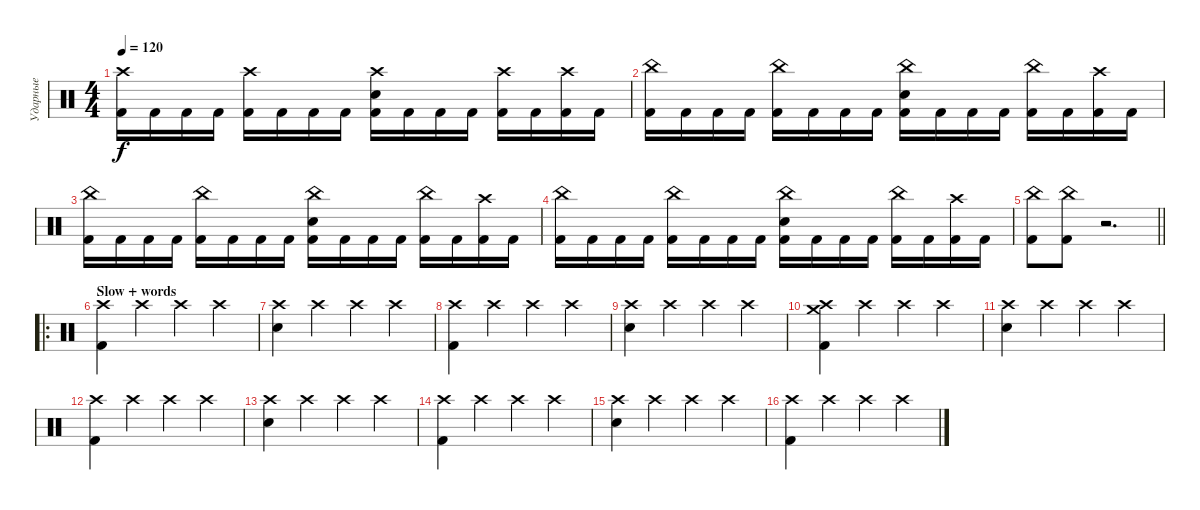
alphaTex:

\track ("Ударные" "Ударные") {instrument percussion}
\staff {score}
\articulation defaults
\ts (4 4)
\tempo 120
\clef neutral
\ks c
("Crash high (hit)" "Kick (hit) 2").16{dy f} "Kick (hit) 2".16 "Kick (hit) 2".16 "Kick (hit) 2".16 ("Crash high (hit)" "Kick (hit) 2").16 "Kick (hit) 2".16 "Kick (hit) 2".16 "Kick (hit) 2".16 ("Crash high (hit)" "Snare (hit) 2" "Kick (hit) 2").16 "Kick (hit) 2".16 "Kick (hit) 2".16 "Kick (hit) 2".16 ("Crash high (hit)" "Kick (hit) 2").16 "Kick (hit) 2".16 ("Crash high (hit)" "Kick (hit) 2").16 "Kick (hit) 2".16 |
("China (hit)" "Kick (hit) 2").16 "Kick (hit) 2".16 "Kick (hit) 2".16 "Kick (hit) 2".16 ("China (hit)" "Kick (hit) 2").16 "Kick (hit) 2".16 "Kick (hit) 2".16 "Kick (hit) 2".16 ("China (hit)" "Snare (hit) 2" "Kick (hit) 2").16 "Kick (hit) 2".16 "Kick (hit) 2".16 "Kick (hit) 2".16 ("China (hit)" "Kick (hit) 2").16 "Kick (hit) 2".16 ("Crash high (hit)" "Kick (hit) 2").16 "Kick (hit) 2".16 |
("China (hit)" "Kick (hit) 2").16 "Kick (hit) 2".16 "Kick (hit) 2".16 "Kick (hit) 2".16 ("China (hit)" "Kick (hit) 2").16 "Kick (hit) 2".16 "Kick (hit) 2".16 "Kick (hit) 2".16 ("China (hit)" "Snare (hit) 2" "Kick (hit) 2").16 "Kick (hit) 2".16 "Kick (hit) 2".16 "Kick (hit) 2".16 ("China (hit)" "Kick (hit) 2").16 "Kick (hit) 2".16 ("Crash high (hit)" "Kick (hit) 2").16 "Kick (hit) 2".16 |
("China (hit)" "Kick (hit) 2").16 "Kick (hit) 2".16 "Kick (hit) 2".16 "Kick (hit) 2".16 ("China (hit)" "Kick (hit) 2").16 "Kick (hit) 2".16 "Kick (hit) 2".16 "Kick (hit) 2".16 ("China (hit)" "Snare (hit) 2" "Kick (hit) 2").16 "Kick (hit) 2".16 "Kick (hit) 2".16 "Kick (hit) 2".16 ("China (hit)" "Kick (hit) 2").16 "Kick (hit) 2".16 ("Crash high (hit)" "Kick (hit) 2").16 "Kick (hit) 2".16 |
\barLineRight lightlight
("China (hit)" "Kick (hit) 2").8 ("China (hit)" "Kick (hit) 2").8 r.2{d} |
\ro
\section ("" "Slow + words")
("Crash high (hit)" "Kick (hit) 2").4 "Crash high (hit)".4 "Crash high (hit)".4 "Crash high (hit)".4 |
("Crash high (hit)" "Snare (hit) 2").4 "Crash high (hit)".4 "Crash high (hit)".4 "Crash high (hit)".4 |
("Crash high (hit)" "Kick (hit) 2").4 "Crash high (hit)".4 "Crash high (hit)".4 "Crash high (hit)".4 |
("Crash high (hit)" "Snare (hit) 2").4 "Crash high (hit)".4 "Crash high (hit)".4 "Crash high (hit)".4 |
("Crash high (hit)" "Crash medium (hit)" "Kick (hit) 2").4 "Crash high (hit)".4 "Crash high (hit)".4 "Crash high (hit)".4 |
("Crash high (hit)" "Snare (hit) 2").4 "Crash high (hit)".4 "Crash high (hit)".4 "Crash high (hit)".4 |
("Crash high (hit)" "Kick (hit) 2").4 "Crash high (hit)".4 "Crash high (hit)".4 "Crash high (hit)".4 |
("Crash high (hit)" "Snare (hit) 2").4 "Crash high (hit)".4 "Crash high (hit)".4 "Crash high (hit)".4 |
("Crash high (hit)" "Kick (hit) 2").4 "Crash high (hit)".4 "Crash high (hit)".4 "Crash high (hit)".4 |
("Crash high (hit)" "Snare (hit) 2").4 "Crash high (hit)".4 "Crash high (hit)".4 "Crash high (hit)".4 |
("Crash high (hit)" "Kick (hit) 2").4 "Crash high (hit)".4 "Crash high (hit)".4 "Crash high (hit)".4
